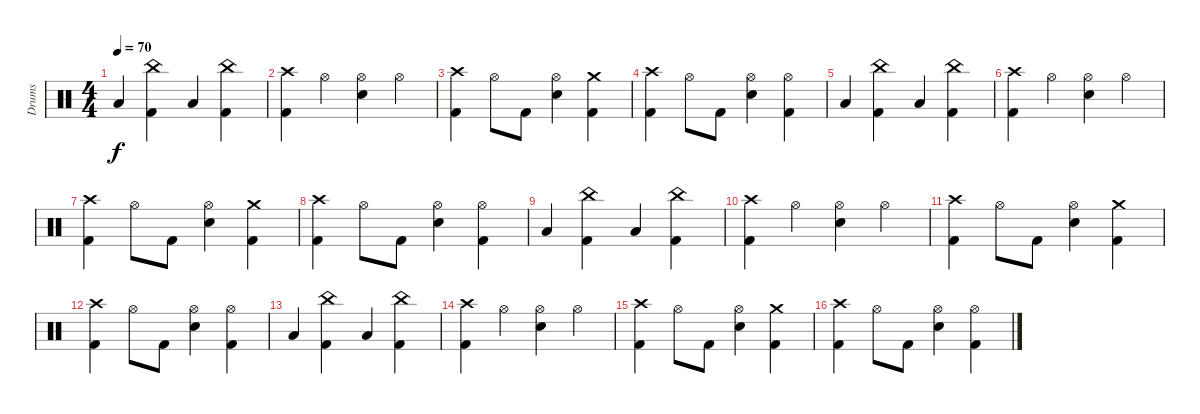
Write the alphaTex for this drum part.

\track ("Drums" "Drums") {instrument percussion}
\staff {score}
\articulation defaults
\ts (4 4)
\tempo 70
\clef neutral
\ks c "Low Floor Tom (hit)".4{dy f}
("China (hit)" "Kick (hit) 2").4 "Low Floor Tom (hit)".4 ("China (hit)" "Kick (hit) 2").4 |
("Crash high (hit)" "Kick (hit) 2").4 "Hi-Hat (open)".4 ("Hi-Hat (open)" "Electric Snare (hit)").4 "Hi-Hat (open)".4 |
("Crash high (hit)" "Kick (hit) 2").4 "Hi-Hat (open)".8 "Kick (hit) 2".8 ("Hi-Hat (open)" "Electric Snare (hit)").4 ("Crash medium (hit)" "Kick (hit) 2").4 |
("Crash high (hit)" "Kick (hit) 2").4 "Hi-Hat (open)".8 "Kick (hit) 2".8 ("Hi-Hat (open)" "Electric Snare (hit)").4 ("Hi-Hat (open)" "Kick (hit) 2").4 |
"Low Floor Tom (hit)".4 ("China (hit)" "Kick (hit) 2").4 "Low Floor Tom (hit)".4 ("China (hit)" "Kick (hit) 2").4 |
("Crash high (hit)" "Kick (hit) 2").4 "Hi-Hat (open)".4 ("Hi-Hat (open)" "Electric Snare (hit)").4 "Hi-Hat (open)".4 |
("Crash high (hit)" "Kick (hit) 2").4 "Hi-Hat (open)".8 "Kick (hit) 2".8 ("Hi-Hat (open)" "Electric Snare (hit)").4 ("Crash medium (hit)" "Kick (hit) 2").4 |
("Crash high (hit)" "Kick (hit) 2").4 "Hi-Hat (open)".8 "Kick (hit) 2".8 ("Hi-Hat (open)" "Electric Snare (hit)").4 ("Hi-Hat (open)" "Kick (hit) 2").4 |
"Low Floor Tom (hit)".4 ("China (hit)" "Kick (hit) 2").4 "Low Floor Tom (hit)".4 ("China (hit)" "Kick (hit) 2").4 |
("Crash high (hit)" "Kick (hit) 2").4 "Hi-Hat (open)".4 ("Hi-Hat (open)" "Electric Snare (hit)").4 "Hi-Hat (open)".4 |
("Crash high (hit)" "Kick (hit) 2").4 "Hi-Hat (open)".8 "Kick (hit) 2".8 ("Hi-Hat (open)" "Electric Snare (hit)").4 ("Crash medium (hit)" "Kick (hit) 2").4 |
("Crash high (hit)" "Kick (hit) 2").4 "Hi-Hat (open)".8 "Kick (hit) 2".8 ("Hi-Hat (open)" "Electric Snare (hit)").4 ("Hi-Hat (open)" "Kick (hit) 2").4 |
"Low Floor Tom (hit)".4 ("China (hit)" "Kick (hit) 2").4 "Low Floor Tom (hit)".4 ("China (hit)" "Kick (hit) 2").4 |
("Crash high (hit)" "Kick (hit) 2").4 "Hi-Hat (open)".4 ("Hi-Hat (open)" "Electric Snare (hit)").4 "Hi-Hat (open)".4 |
("Crash high (hit)" "Kick (hit) 2").4 "Hi-Hat (open)".8 "Kick (hit) 2".8 ("Hi-Hat (open)" "Electric Snare (hit)").4 ("Crash medium (hit)" "Kick (hit) 2").4 |
("Crash high (hit)" "Kick (hit) 2").4 "Hi-Hat (open)".8 "Kick (hit) 2".8 ("Hi-Hat (open)" "Electric Snare (hit)").4 ("Hi-Hat (open)" "Kick (hit) 2").4
